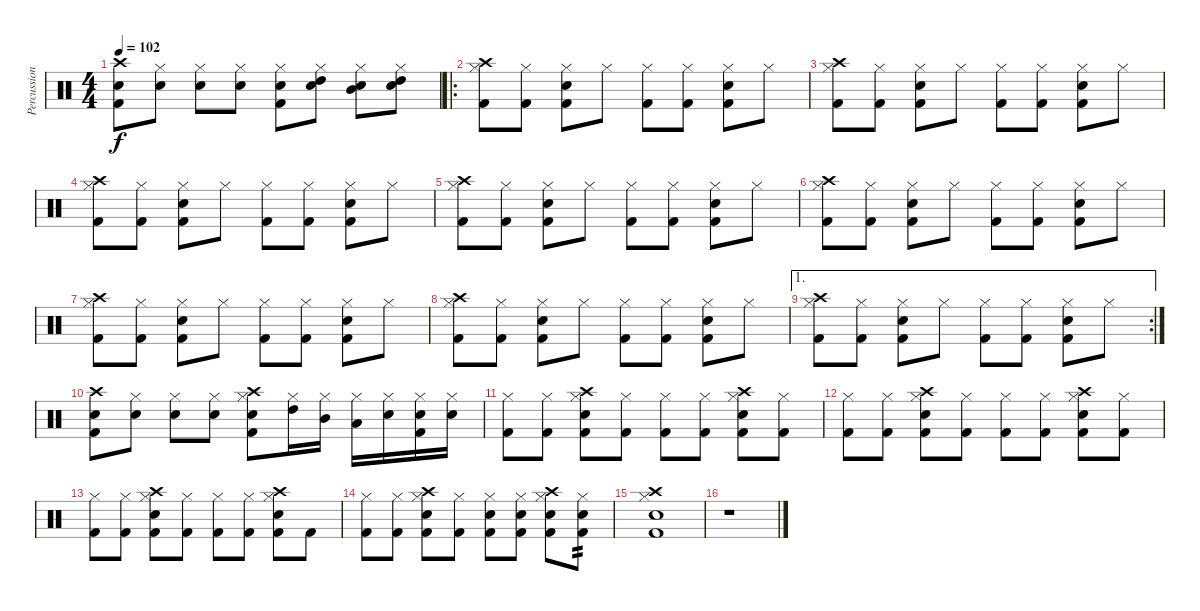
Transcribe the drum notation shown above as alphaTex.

\track ("Percussion" "Percussion") {instrument percussion}
\staff {score}
\articulation defaults
\ts (4 4)
\tempo 102
\clef neutral
\ks c
("Kick (hit) 2" "Snare (hit) 2" "Crash high (hit)").8{dy f} ("Snare (hit) 2" "Hi-Hat (closed)").8 ("Snare (hit) 2" "Hi-Hat (closed)").8 ("Snare (hit) 2" "Hi-Hat (closed)").8 ("Kick (hit) 2" "Snare (hit) 2" "Hi-Hat (closed)").8 ("High Tom (hit)" "Snare (hit) 2" "Hi-Hat (closed)").8 ("Mid Tom (hit)" "Snare (hit) 2" "Hi-Hat (closed)").8 ("High Tom (hit)" "Snare (hit) 2" "Hi-Hat (closed)").8 |
\ro
("Kick (hit) 2" "Hi-Hat (closed)" "Crash high (hit)").8 ("Kick (hit) 2" "Hi-Hat (closed)").8 ("Kick (hit) 2" "Snare (hit) 2" "Hi-Hat (closed)").8 "Hi-Hat (closed)".8 ("Kick (hit) 2" "Hi-Hat (closed)").8 ("Kick (hit) 2" "Hi-Hat (closed)").8 ("Kick (hit) 2" "Snare (hit) 2" "Hi-Hat (closed)").8 "Hi-Hat (closed)".8 |
("Kick (hit) 2" "Hi-Hat (closed)" "Crash high (hit)").8 ("Kick (hit) 2" "Hi-Hat (closed)").8 ("Kick (hit) 2" "Snare (hit) 2" "Hi-Hat (closed)").8 "Hi-Hat (closed)".8 ("Kick (hit) 2" "Hi-Hat (closed)").8 ("Kick (hit) 2" "Hi-Hat (closed)").8 ("Kick (hit) 2" "Snare (hit) 2" "Hi-Hat (closed)").8 "Hi-Hat (closed)".8 |
("Kick (hit) 2" "Hi-Hat (closed)" "Crash high (hit)").8 ("Kick (hit) 2" "Hi-Hat (closed)").8 ("Kick (hit) 2" "Snare (hit) 2" "Hi-Hat (closed)").8 "Hi-Hat (closed)".8 ("Kick (hit) 2" "Hi-Hat (closed)").8 ("Kick (hit) 2" "Hi-Hat (closed)").8 ("Kick (hit) 2" "Snare (hit) 2" "Hi-Hat (closed)").8 "Hi-Hat (closed)".8 |
("Kick (hit) 2" "Hi-Hat (closed)" "Crash high (hit)").8 ("Kick (hit) 2" "Hi-Hat (closed)").8 ("Kick (hit) 2" "Snare (hit) 2" "Hi-Hat (closed)").8 "Hi-Hat (closed)".8 ("Kick (hit) 2" "Hi-Hat (closed)").8 ("Kick (hit) 2" "Hi-Hat (closed)").8 ("Kick (hit) 2" "Snare (hit) 2" "Hi-Hat (closed)").8 "Hi-Hat (closed)".8 |
("Kick (hit) 2" "Hi-Hat (closed)" "Crash high (hit)").8 ("Kick (hit) 2" "Hi-Hat (closed)").8 ("Kick (hit) 2" "Snare (hit) 2" "Hi-Hat (closed)").8 "Hi-Hat (closed)".8 ("Kick (hit) 2" "Hi-Hat (closed)").8 ("Kick (hit) 2" "Hi-Hat (closed)").8 ("Kick (hit) 2" "Snare (hit) 2" "Hi-Hat (closed)").8 "Hi-Hat (closed)".8 |
("Kick (hit) 2" "Hi-Hat (closed)" "Crash high (hit)").8 ("Kick (hit) 2" "Hi-Hat (closed)").8 ("Kick (hit) 2" "Snare (hit) 2" "Hi-Hat (closed)").8 "Hi-Hat (closed)".8 ("Kick (hit) 2" "Hi-Hat (closed)").8 ("Kick (hit) 2" "Hi-Hat (closed)").8 ("Kick (hit) 2" "Snare (hit) 2" "Hi-Hat (closed)").8 "Hi-Hat (closed)".8 |
("Kick (hit) 2" "Hi-Hat (closed)" "Crash high (hit)").8 ("Kick (hit) 2" "Hi-Hat (closed)").8 ("Kick (hit) 2" "Snare (hit) 2" "Hi-Hat (closed)").8 "Hi-Hat (closed)".8 ("Kick (hit) 2" "Hi-Hat (closed)").8 ("Kick (hit) 2" "Hi-Hat (closed)").8 ("Kick (hit) 2" "Snare (hit) 2" "Hi-Hat (closed)").8 "Hi-Hat (closed)".8 |
\ae 1
\rc 2
("Kick (hit) 2" "Hi-Hat (closed)" "Crash high (hit)").8 ("Kick (hit) 2" "Hi-Hat (closed)").8 ("Kick (hit) 2" "Snare (hit) 2" "Hi-Hat (closed)").8 "Hi-Hat (closed)".8 ("Kick (hit) 2" "Hi-Hat (closed)").8 ("Kick (hit) 2" "Hi-Hat (closed)").8 ("Kick (hit) 2" "Snare (hit) 2" "Hi-Hat (closed)").8 "Hi-Hat (closed)".8 |
("Kick (hit) 2" "Snare (hit) 2" "Crash high (hit)").8 ("Snare (hit) 2" "Hi-Hat (closed)").8 ("Snare (hit) 2" "Hi-Hat (closed)").8 ("Snare (hit) 2" "Hi-Hat (closed)").8 ("Kick (hit) 2" "Snare (hit) 2" "Hi-Hat (closed)" "Crash high (hit)").8 ("High Tom (hit)" "Hi-Hat (closed)").16 ("Mid Tom (hit)" "Hi-Hat (closed)").16 ("Low Tom (hit)" "Hi-Hat (closed)").16 ("Snare (hit) 2" "Hi-Hat (closed)").16 ("Kick (hit) 2" "Snare (hit) 2" "Hi-Hat (closed)").16 ("Snare (hit) 2" "Hi-Hat (closed)").16 |
("Kick (hit) 2" "Hi-Hat (closed)").8 ("Kick (hit) 2" "Hi-Hat (closed)").8 ("Kick (hit) 2" "Snare (hit) 2" "Hi-Hat (closed)" "Crash high (hit)").8 ("Kick (hit) 2" "Hi-Hat (closed)").8 ("Kick (hit) 2" "Hi-Hat (closed)").8 ("Kick (hit) 2" "Hi-Hat (closed)").8 ("Kick (hit) 2" "Snare (hit) 2" "Hi-Hat (closed)" "Crash high (hit)").8 ("Kick (hit) 2" "Hi-Hat (closed)").8 |
("Kick (hit) 2" "Hi-Hat (closed)").8 ("Kick (hit) 2" "Hi-Hat (closed)").8 ("Kick (hit) 2" "Snare (hit) 2" "Hi-Hat (closed)" "Crash high (hit)").8 ("Kick (hit) 2" "Hi-Hat (closed)").8 ("Kick (hit) 2" "Hi-Hat (closed)").8 ("Kick (hit) 2" "Hi-Hat (closed)").8 ("Kick (hit) 2" "Snare (hit) 2" "Hi-Hat (closed)" "Crash high (hit)").8 ("Kick (hit) 2" "Hi-Hat (closed)").8 |
("Kick (hit) 2" "Hi-Hat (closed)").8 ("Kick (hit) 2" "Hi-Hat (closed)").8 ("Kick (hit) 2" "Snare (hit) 2" "Hi-Hat (closed)" "Crash high (hit)").8 ("Kick (hit) 2" "Hi-Hat (closed)").8 ("Kick (hit) 2" "Hi-Hat (closed)").8 ("Kick (hit) 2" "Hi-Hat (closed)").8 ("Kick (hit) 2" "Snare (hit) 2" "Hi-Hat (closed)" "Crash high (hit)").8 "Kick (hit) 2".8 |
("Kick (hit) 2" "Hi-Hat (closed)").8 ("Kick (hit) 2" "Hi-Hat (closed)").8 ("Kick (hit) 2" "Snare (hit) 2" "Hi-Hat (closed)" "Crash high (hit)").8 ("Kick (hit) 2" "Hi-Hat (closed)").8 ("Kick (hit) 2" "Snare (hit) 2" "Hi-Hat (closed)").8 ("Kick (hit) 2" "Snare (hit) 2" "Hi-Hat (closed)").8 ("Kick (hit) 2" "Snare (hit) 2" "Hi-Hat (closed)" "Crash high (hit)").8 ("Kick (hit) 2" "Snare (hit) 2" "Hi-Hat (closed)").8{tp 2} |
("Kick (hit) 2" "Snare (hit) 2" "Hi-Hat (closed)" "Crash high (hit)").1 |
r.1
